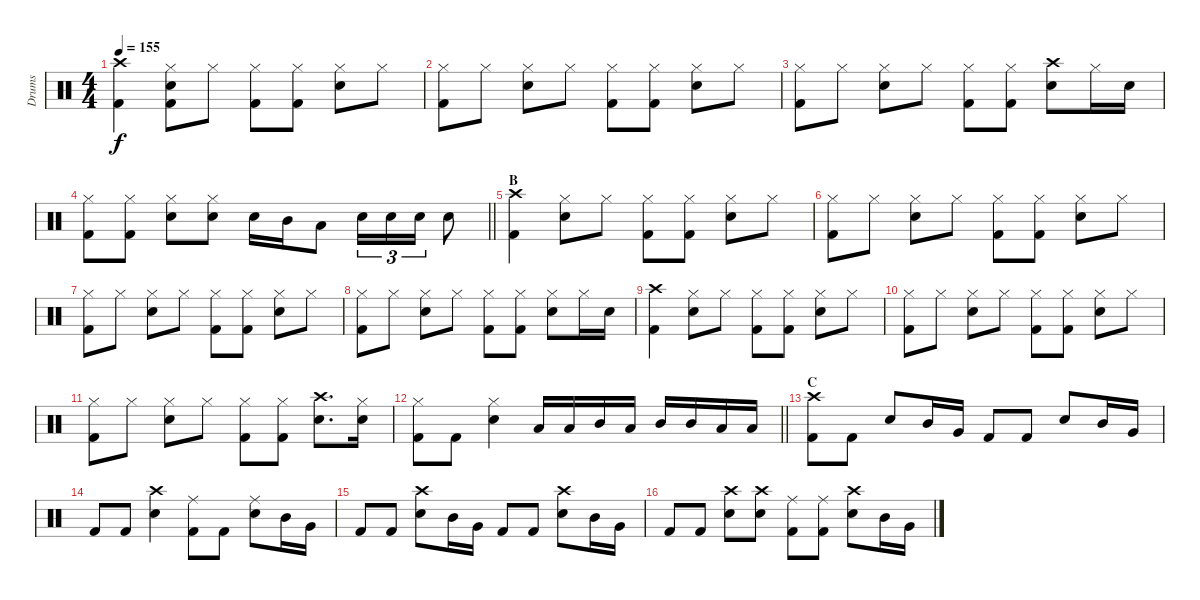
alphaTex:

\track ("Drums" "Drums") {instrument percussion}
\staff {score}
\articulation defaults
\ts (4 4)
\tempo 155
\clef neutral
\ks c
("Crash high (hit)" "Kick (hit) 2").4{dy f} ("Hi-Hat (closed)" "Snare (hit) 2" "Kick (hit) 2").8 "Hi-Hat (closed)".8 ("Hi-Hat (closed)" "Kick (hit) 2").8 ("Hi-Hat (closed)" "Kick (hit) 2").8 ("Hi-Hat (closed)" "Snare (hit) 2").8 "Hi-Hat (closed)".8 |
("Hi-Hat (closed)" "Kick (hit) 2").8 "Hi-Hat (closed)".8 ("Hi-Hat (closed)" "Snare (hit) 2").8 "Hi-Hat (closed)".8 ("Hi-Hat (closed)" "Kick (hit) 2").8 ("Hi-Hat (closed)" "Kick (hit) 2").8 ("Hi-Hat (closed)" "Snare (hit) 2").8 "Hi-Hat (closed)".8 |
("Hi-Hat (closed)" "Kick (hit) 2").8 "Hi-Hat (closed)".8 ("Hi-Hat (closed)" "Snare (hit) 2").8 "Hi-Hat (closed)".8 ("Hi-Hat (closed)" "Kick (hit) 2").8 ("Hi-Hat (closed)" "Kick (hit) 2").8 ("Crash high (hit)" "Snare (hit) 2").8 "Hi-Hat (closed)".16 "Snare (hit) 2".16 |
\barLineRight lightlight
("Hi-Hat (closed)" "Kick (hit) 2").8 ("Hi-Hat (closed)" "Kick (hit) 2").8 ("Hi-Hat (closed)" "Snare (hit) 2").8 ("Hi-Hat (closed)" "Snare (hit) 2").8 "Snare (hit) 2".16 "Mid Tom (hit)".16 "Low Tom (hit)".8 "Snare (hit) 2".16{tu (3 2)} "Snare (hit) 2".16{tu (3 2)} "Snare (hit) 2".16{tu (3 2)} "Snare (hit) 2".8 |
\section ("" "B")
("Crash high (hit)" "Kick (hit) 2").4 ("Hi-Hat (closed)" "Snare (hit) 2").8 "Hi-Hat (closed)".8 ("Hi-Hat (closed)" "Kick (hit) 2").8 ("Hi-Hat (closed)" "Kick (hit) 2").8 ("Hi-Hat (closed)" "Snare (hit) 2").8 "Hi-Hat (closed)".8 |
("Hi-Hat (closed)" "Kick (hit) 2").8 "Hi-Hat (closed)".8 ("Hi-Hat (closed)" "Snare (hit) 2").8 "Hi-Hat (closed)".8 ("Hi-Hat (closed)" "Kick (hit) 2").8 ("Hi-Hat (closed)" "Kick (hit) 2").8 ("Hi-Hat (closed)" "Snare (hit) 2").8 "Hi-Hat (closed)".8 |
("Hi-Hat (closed)" "Kick (hit) 2").8 "Hi-Hat (closed)".8 ("Hi-Hat (closed)" "Snare (hit) 2").8 "Hi-Hat (closed)".8 ("Hi-Hat (closed)" "Kick (hit) 2").8 ("Hi-Hat (closed)" "Kick (hit) 2").8 ("Hi-Hat (closed)" "Snare (hit) 2").8 "Hi-Hat (closed)".8 |
("Hi-Hat (closed)" "Kick (hit) 2").8 "Hi-Hat (closed)".8 ("Hi-Hat (closed)" "Snare (hit) 2").8 "Hi-Hat (closed)".8 ("Hi-Hat (closed)" "Kick (hit) 2").8 ("Hi-Hat (closed)" "Kick (hit) 2").8 ("Hi-Hat (closed)" "Snare (hit) 2").8 "Hi-Hat (closed)".16 "Snare (hit) 2".16 |
("Crash high (hit)" "Kick (hit) 2").4 ("Hi-Hat (closed)" "Snare (hit) 2").8 "Hi-Hat (closed)".8 ("Hi-Hat (closed)" "Kick (hit) 2").8 ("Hi-Hat (closed)" "Kick (hit) 2").8 ("Hi-Hat (closed)" "Snare (hit) 2").8 "Hi-Hat (closed)".8 |
("Hi-Hat (closed)" "Kick (hit) 2").8 "Hi-Hat (closed)".8 ("Hi-Hat (closed)" "Snare (hit) 2").8 "Hi-Hat (closed)".8 ("Hi-Hat (closed)" "Kick (hit) 2").8 ("Hi-Hat (closed)" "Kick (hit) 2").8 ("Hi-Hat (closed)" "Snare (hit) 2").8 "Hi-Hat (closed)".8 |
("Hi-Hat (closed)" "Kick (hit) 2").8 "Hi-Hat (closed)".8 ("Hi-Hat (closed)" "Snare (hit) 2").8 "Hi-Hat (closed)".8 ("Hi-Hat (closed)" "Kick (hit) 2").8 ("Hi-Hat (closed)" "Kick (hit) 2").8 ("Crash high (hit)" "Snare (hit) 2").8{d} ("Hi-Hat (closed)" "Snare (hit) 2").16 |
\barLineRight lightlight
("Hi-Hat (closed)" "Kick (hit) 2").8 "Kick (hit) 2".8 ("Hi-Hat (closed)" "Snare (hit) 2").4 "Low Tom (hit)".16 "Low Tom (hit)".16 "Mid Tom (hit)".16 "Low Tom (hit)".16 "Mid Tom (hit)".16 "Mid Tom (hit)".16 "Low Tom (hit)".16 "Low Tom (hit)".16 |
\section ("" "C")
("Crash high (hit)" "Kick (hit) 2").8 "Kick (hit) 2".8 "Snare (hit) 2".8 "Mid Tom (hit)".16 "Very Low Tom (hit)".16 "Kick (hit) 2".8 "Kick (hit) 2".8 "Snare (hit) 2".8 "Mid Tom (hit)".16 "Very Low Tom (hit)".16 |
"Kick (hit) 2".8 "Kick (hit) 2".8 ("Crash high (hit)" "Snare (hit) 2").4 ("Ride (middle)" "Kick (hit) 2").8 "Kick (hit) 2".8 ("Ride (middle)" "Snare (hit) 2").8 "Mid Tom (hit)".16 "Very Low Tom (hit)".16 |
"Kick (hit) 2".8 "Kick (hit) 2".8 ("Crash high (hit)" "Snare (hit) 2").8 "Mid Tom (hit)".16 "Very Low Tom (hit)".16 "Kick (hit) 2".8 "Kick (hit) 2".8 ("Crash high (hit)" "Snare (hit) 2").8 "Mid Tom (hit)".16 "Very Low Tom (hit)".16 |
"Kick (hit) 2".8 "Kick (hit) 2".8 ("Crash high (hit)" "Snare (hit) 2").8 ("Crash high (hit)" "Snare (hit) 2").8 ("Ride (middle)" "Kick (hit) 2").8 ("Ride (middle)" "Kick (hit) 2").8 ("Crash high (hit)" "Snare (hit) 2").8 "Mid Tom (hit)".16 "Very Low Tom (hit)".16
